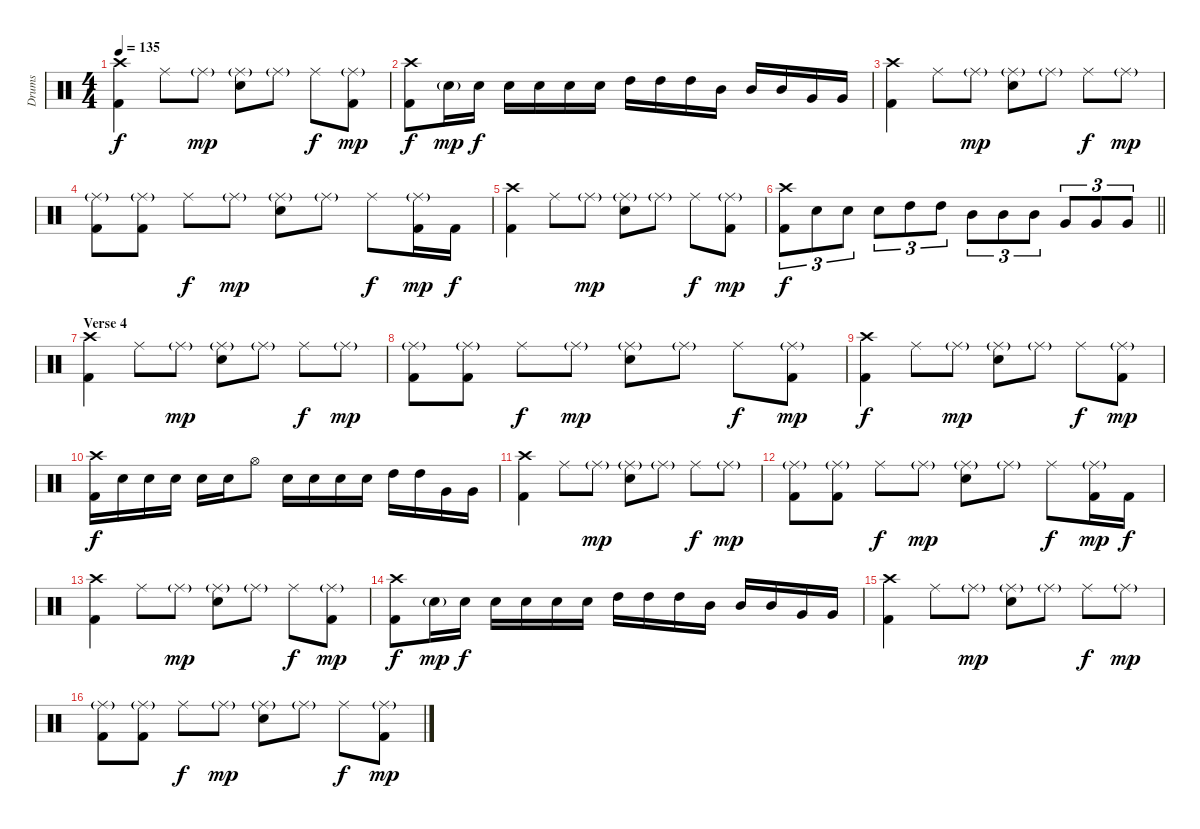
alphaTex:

\track ("Drums" "Drums") {instrument percussion}
\staff {score}
\articulation defaults
\ts (4 4)
\tempo 135
\clef neutral
\ks c
("Crash high (hit)" "Kick (hit) 2").4{dy f} "Ride (middle)".8 "Ride (middle)"{g}.8{dy mp} ("Ride (middle)"{g} "Snare (hit) 2").8 "Ride (middle)"{g}.8 "Ride (middle)".8{dy f} ("Ride (middle)"{g} "Kick (hit) 2").8{dy mp} |
("Crash high (hit)" "Kick (hit) 2").8{dy f} "Snare (hit) 2"{g}.16{dy mp} "Snare (hit) 2".16{dy f} "Snare (hit) 2".16 "Snare (hit) 2".16 "Snare (hit) 2".16 "Snare (hit) 2".16 "High Tom (hit)".16 "High Tom (hit)".16 "High Tom (hit)".16 "Mid Tom (hit)".16 "Mid Tom (hit)".16 "Mid Tom (hit)".16 "Very Low Tom (hit)".16 "Very Low Tom (hit)".16 |
("Crash high (hit)" "Kick (hit) 2").4 "Ride (middle)".8 "Ride (middle)"{g}.8{dy mp} ("Ride (middle)"{g} "Snare (hit) 2").8 "Ride (middle)"{g}.8 "Ride (middle)".8{dy f} "Ride (middle)"{g}.8{dy mp} |
("Ride (middle)"{g} "Kick (hit) 2").8 ("Ride (middle)"{g} "Kick (hit) 2").8 "Ride (middle)".8{dy f} "Ride (middle)"{g}.8{dy mp} ("Ride (middle)"{g} "Snare (hit) 2").8 "Ride (middle)"{g}.8 "Ride (middle)".8{dy f} ("Ride (middle)"{g} "Kick (hit) 2").16{dy mp} "Kick (hit) 2".16{dy f} |
("Crash high (hit)" "Kick (hit) 2").4 "Ride (middle)".8 "Ride (middle)"{g}.8{dy mp} ("Ride (middle)"{g} "Snare (hit) 2").8 "Ride (middle)"{g}.8 "Ride (middle)".8{dy f} ("Ride (middle)"{g} "Kick (hit) 2").8{dy mp} |
\barLineRight lightlight
("Crash high (hit)" "Kick (hit) 2").8{tu (3 2) dy f} "Snare (hit) 2".8{tu (3 2)} "Snare (hit) 2".8{tu (3 2)} "Snare (hit) 2".8{tu (3 2)} "High Tom (hit)".8{tu (3 2)} "High Tom (hit)".8{tu (3 2)} "Mid Tom (hit)".8{tu (3 2)} "Mid Tom (hit)".8{tu (3 2)} "Mid Tom (hit)".8{tu (3 2)} "Very Low Tom (hit)".8{tu (3 2)} "Very Low Tom (hit)".8{tu (3 2)} "Very Low Tom (hit)".8{tu (3 2)} |
\section ("" "Verse 4")
("Crash high (hit)" "Kick (hit) 2").4 "Ride (middle)".8 "Ride (middle)"{g}.8{dy mp} ("Ride (middle)"{g} "Snare (hit) 2").8 "Ride (middle)"{g}.8 "Ride (middle)".8{dy f} "Ride (middle)"{g}.8{dy mp} |
("Ride (middle)"{g} "Kick (hit) 2").8 ("Ride (middle)"{g} "Kick (hit) 2").8 "Ride (middle)".8{dy f} "Ride (middle)"{g}.8{dy mp} ("Ride (middle)"{g} "Snare (hit) 2").8 "Ride (middle)"{g}.8 "Ride (middle)".8{dy f} ("Ride (middle)"{g} "Kick (hit) 2").8{dy mp} |
("Crash high (hit)" "Kick (hit) 2").4{dy f} "Ride (middle)".8 "Ride (middle)"{g}.8{dy mp} ("Ride (middle)"{g} "Snare (hit) 2").8 "Ride (middle)"{g}.8 "Ride (middle)".8{dy f} ("Ride (middle)"{g} "Kick (hit) 2").8{dy mp} |
("Crash high (hit)" "Kick (hit) 2").16{dy f} "Snare (hit) 2".16 "Snare (hit) 2".16 "Snare (hit) 2".16 "Snare (hit) 2".16 "Snare (hit) 2".16 "Hi-Hat (open)".8 "Snare (hit) 2".16 "Snare (hit) 2".16 "Snare (hit) 2".16 "Snare (hit) 2".16 "High Tom (hit)".16 "High Tom (hit)".16 "Very Low Tom (hit)".16 "Very Low Tom (hit)".16 |
("Crash high (hit)" "Kick (hit) 2").4 "Ride (middle)".8 "Ride (middle)"{g}.8{dy mp} ("Ride (middle)"{g} "Snare (hit) 2").8 "Ride (middle)"{g}.8 "Ride (middle)".8{dy f} "Ride (middle)"{g}.8{dy mp} |
("Ride (middle)"{g} "Kick (hit) 2").8 ("Ride (middle)"{g} "Kick (hit) 2").8 "Ride (middle)".8{dy f} "Ride (middle)"{g}.8{dy mp} ("Ride (middle)"{g} "Snare (hit) 2").8 "Ride (middle)"{g}.8 "Ride (middle)".8{dy f} ("Ride (middle)"{g} "Kick (hit) 2").16{dy mp} "Kick (hit) 2".16{dy f} |
("Crash high (hit)" "Kick (hit) 2").4 "Ride (middle)".8 "Ride (middle)"{g}.8{dy mp} ("Ride (middle)"{g} "Snare (hit) 2").8 "Ride (middle)"{g}.8 "Ride (middle)".8{dy f} ("Ride (middle)"{g} "Kick (hit) 2").8{dy mp} |
("Crash high (hit)" "Kick (hit) 2").8{dy f} "Snare (hit) 2"{g}.16{dy mp} "Snare (hit) 2".16{dy f} "Snare (hit) 2".16 "Snare (hit) 2".16 "Snare (hit) 2".16 "Snare (hit) 2".16 "High Tom (hit)".16 "High Tom (hit)".16 "High Tom (hit)".16 "Mid Tom (hit)".16 "Mid Tom (hit)".16 "Mid Tom (hit)".16 "Very Low Tom (hit)".16 "Very Low Tom (hit)".16 |
("Crash high (hit)" "Kick (hit) 2").4 "Ride (middle)".8 "Ride (middle)"{g}.8{dy mp} ("Ride (middle)"{g} "Snare (hit) 2").8 "Ride (middle)"{g}.8 "Ride (middle)".8{dy f} "Ride (middle)"{g}.8{dy mp} |
("Ride (middle)"{g} "Kick (hit) 2").8 ("Ride (middle)"{g} "Kick (hit) 2").8 "Ride (middle)".8{dy f} "Ride (middle)"{g}.8{dy mp} ("Ride (middle)"{g} "Snare (hit) 2").8 "Ride (middle)"{g}.8 "Ride (middle)".8{dy f} ("Ride (middle)"{g} "Kick (hit) 2").8{dy mp}
